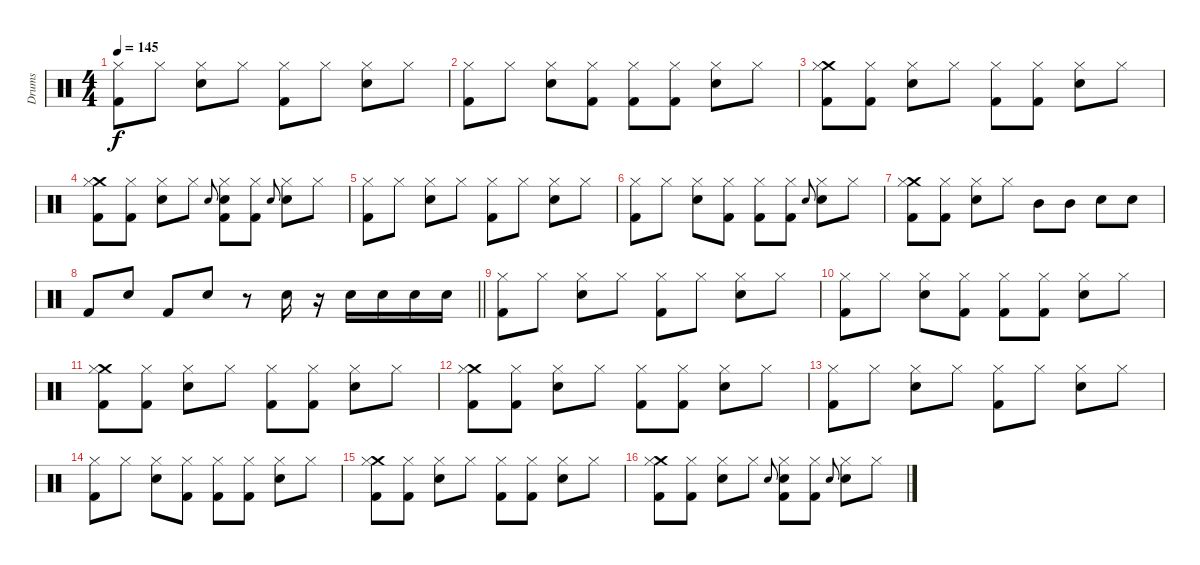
\track ("Drums" "Drums") {instrument percussion}
\staff {score}
\articulation defaults
\ts (4 4)
\tempo 145
\clef neutral
\ks c
("Hi-Hat (closed)" "Kick (hit) 2").8{dy f} "Hi-Hat (closed)".8 ("Hi-Hat (closed)" "Electric Snare (hit)").8 "Hi-Hat (closed)".8 ("Hi-Hat (closed)" "Kick (hit) 2").8 "Hi-Hat (closed)".8 ("Hi-Hat (closed)" "Electric Snare (hit)").8 "Hi-Hat (closed)".8 |
("Hi-Hat (closed)" "Kick (hit) 2").8 "Hi-Hat (closed)".8 ("Hi-Hat (closed)" "Electric Snare (hit)").8 ("Hi-Hat (closed)" "Kick (hit) 2").8 ("Hi-Hat (closed)" "Kick (hit) 2").8 ("Hi-Hat (closed)" "Kick (hit) 2").8 ("Hi-Hat (closed)" "Electric Snare (hit)").8 "Hi-Hat (closed)".8 |
("Crash medium (hit)" "Hi-Hat (closed)" "Kick (hit) 2").8 ("Hi-Hat (closed)" "Kick (hit) 2").8 ("Hi-Hat (closed)" "Electric Snare (hit)").8 "Hi-Hat (closed)".8 ("Hi-Hat (closed)" "Kick (hit) 2").8 ("Hi-Hat (closed)" "Kick (hit) 2").8 ("Hi-Hat (closed)" "Electric Snare (hit)").8 "Hi-Hat (closed)".8 |
("Crash medium (hit)" "Hi-Hat (closed)" "Kick (hit) 2").8 ("Hi-Hat (closed)" "Kick (hit) 2").8 ("Hi-Hat (closed)" "Electric Snare (hit)").8 "Hi-Hat (closed)".8 "Electric Snare (hit)".8{gr onbeat} ("Hi-Hat (closed)" "Electric Snare (hit)" "Kick (hit) 2").8 ("Hi-Hat (closed)" "Kick (hit) 2").8 "Electric Snare (hit)".8{gr onbeat} ("Hi-Hat (closed)" "Electric Snare (hit)").8 "Hi-Hat (closed)".8 |
("Hi-Hat (closed)" "Kick (hit) 2").8 "Hi-Hat (closed)".8 ("Hi-Hat (closed)" "Electric Snare (hit)").8 "Hi-Hat (closed)".8 ("Hi-Hat (closed)" "Kick (hit) 2").8 "Hi-Hat (closed)".8 ("Hi-Hat (closed)" "Electric Snare (hit)").8 "Hi-Hat (closed)".8 |
("Hi-Hat (closed)" "Kick (hit) 2").8 "Hi-Hat (closed)".8 ("Hi-Hat (closed)" "Electric Snare (hit)").8 ("Hi-Hat (closed)" "Kick (hit) 2").8 ("Hi-Hat (closed)" "Kick (hit) 2").8 ("Hi-Hat (closed)" "Kick (hit) 2").8 "Electric Snare (hit)".8{gr onbeat} ("Hi-Hat (closed)" "Electric Snare (hit)").8 "Hi-Hat (closed)".8 |
("Crash medium (hit)" "Hi-Hat (closed)" "Kick (hit) 2").8 ("Hi-Hat (closed)" "Kick (hit) 2").8 ("Hi-Hat (closed)" "Electric Snare (hit)").8 "Hi-Hat (closed)".8 "Mid Tom (hit)".8 "Mid Tom (hit)".8 "Electric Snare (hit)".8 "Electric Snare (hit)".8 |
\barLineRight lightlight "Kick (hit) 2".8 "Electric Snare (hit)".8 "Kick (hit) 2".8 "Electric Snare (hit)".8
r.8 "Electric Snare (hit)".16 r.16 "Electric Snare (hit)".16 "Electric Snare (hit)".16 "Electric Snare (hit)".16 "Electric Snare (hit)".16 |
("Hi-Hat (closed)" "Kick (hit) 2").8 "Hi-Hat (closed)".8 ("Hi-Hat (closed)" "Electric Snare (hit)").8 "Hi-Hat (closed)".8 ("Hi-Hat (closed)" "Kick (hit) 2").8 "Hi-Hat (closed)".8 ("Hi-Hat (closed)" "Electric Snare (hit)").8 "Hi-Hat (closed)".8 |
("Hi-Hat (closed)" "Kick (hit) 2").8 "Hi-Hat (closed)".8 ("Hi-Hat (closed)" "Electric Snare (hit)").8 ("Hi-Hat (closed)" "Kick (hit) 2").8 ("Hi-Hat (closed)" "Kick (hit) 2").8 ("Hi-Hat (closed)" "Kick (hit) 2").8 ("Hi-Hat (closed)" "Electric Snare (hit)").8 "Hi-Hat (closed)".8 |
("Crash medium (hit)" "Hi-Hat (closed)" "Kick (hit) 2").8 ("Hi-Hat (closed)" "Kick (hit) 2").8 ("Hi-Hat (closed)" "Electric Snare (hit)").8 "Hi-Hat (closed)".8 ("Hi-Hat (closed)" "Kick (hit) 2").8 ("Hi-Hat (closed)" "Kick (hit) 2").8 ("Hi-Hat (closed)" "Electric Snare (hit)").8 "Hi-Hat (closed)".8 |
("Crash medium (hit)" "Hi-Hat (closed)" "Kick (hit) 2").8 ("Hi-Hat (closed)" "Kick (hit) 2").8 ("Hi-Hat (closed)" "Electric Snare (hit)").8 "Hi-Hat (closed)".8 ("Hi-Hat (closed)" "Kick (hit) 2").8 ("Hi-Hat (closed)" "Kick (hit) 2").8 ("Hi-Hat (closed)" "Electric Snare (hit)").8 "Hi-Hat (closed)".8 |
("Hi-Hat (closed)" "Kick (hit) 2").8 "Hi-Hat (closed)".8 ("Hi-Hat (closed)" "Electric Snare (hit)").8 "Hi-Hat (closed)".8 ("Hi-Hat (closed)" "Kick (hit) 2").8 "Hi-Hat (closed)".8 ("Hi-Hat (closed)" "Electric Snare (hit)").8 "Hi-Hat (closed)".8 |
("Hi-Hat (closed)" "Kick (hit) 2").8 "Hi-Hat (closed)".8 ("Hi-Hat (closed)" "Electric Snare (hit)").8 ("Hi-Hat (closed)" "Kick (hit) 2").8 ("Hi-Hat (closed)" "Kick (hit) 2").8 ("Hi-Hat (closed)" "Kick (hit) 2").8 ("Hi-Hat (closed)" "Electric Snare (hit)").8 "Hi-Hat (closed)".8 |
("Crash medium (hit)" "Hi-Hat (closed)" "Kick (hit) 2").8 ("Hi-Hat (closed)" "Kick (hit) 2").8 ("Hi-Hat (closed)" "Electric Snare (hit)").8 "Hi-Hat (closed)".8 ("Hi-Hat (closed)" "Kick (hit) 2").8 ("Hi-Hat (closed)" "Kick (hit) 2").8 ("Hi-Hat (closed)" "Electric Snare (hit)").8 "Hi-Hat (closed)".8 |
("Crash medium (hit)" "Hi-Hat (closed)" "Kick (hit) 2").8 ("Hi-Hat (closed)" "Kick (hit) 2").8 ("Hi-Hat (closed)" "Electric Snare (hit)").8 "Hi-Hat (closed)".8 "Electric Snare (hit)".8{gr onbeat} ("Hi-Hat (closed)" "Electric Snare (hit)" "Kick (hit) 2").8 ("Hi-Hat (closed)" "Kick (hit) 2").8 "Electric Snare (hit)".8{gr onbeat} ("Hi-Hat (closed)" "Electric Snare (hit)").8 "Hi-Hat (closed)".8
